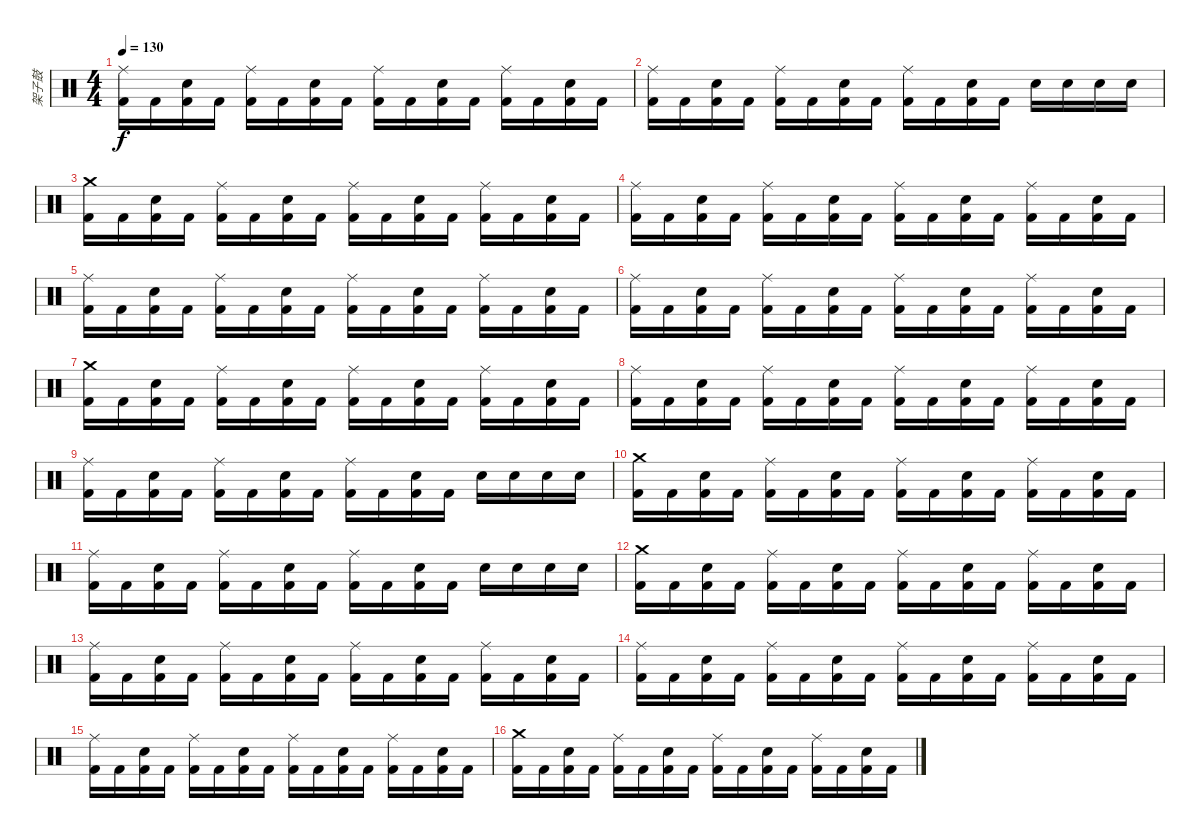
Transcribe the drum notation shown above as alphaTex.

\track ("架子鼓" "架子鼓") {instrument percussion}
\staff {score}
\articulation defaults
\ts (4 4)
\tempo 130
\clef neutral
\ks c
("Ride (middle)" "Kick (hit) 2").16{dy f} "Kick (hit) 2".16 ("Snare (hit) 2" "Kick (hit) 2").16 "Kick (hit) 2".16 ("Ride (middle)" "Kick (hit) 2").16 "Kick (hit) 2".16 ("Snare (hit) 2" "Kick (hit) 2").16 "Kick (hit) 2".16 ("Ride (middle)" "Kick (hit) 2").16 "Kick (hit) 2".16 ("Snare (hit) 2" "Kick (hit) 2").16 "Kick (hit) 2".16 ("Ride (middle)" "Kick (hit) 2").16 "Kick (hit) 2".16 ("Snare (hit) 2" "Kick (hit) 2").16 "Kick (hit) 2".16 |
("Ride (middle)" "Kick (hit) 2").16 "Kick (hit) 2".16 ("Snare (hit) 2" "Kick (hit) 2").16 "Kick (hit) 2".16 ("Ride (middle)" "Kick (hit) 2").16 "Kick (hit) 2".16 ("Snare (hit) 2" "Kick (hit) 2").16 "Kick (hit) 2".16 ("Ride (middle)" "Kick (hit) 2").16 "Kick (hit) 2".16 ("Snare (hit) 2" "Kick (hit) 2").16 "Kick (hit) 2".16 "Snare (hit) 2".16 "Snare (hit) 2".16 "Snare (hit) 2".16 "Snare (hit) 2".16 |
("Crash medium (hit)" "Kick (hit) 2").16 "Kick (hit) 2".16 ("Snare (hit) 2" "Kick (hit) 2").16 "Kick (hit) 2".16 ("Ride (middle)" "Kick (hit) 2").16 "Kick (hit) 2".16 ("Snare (hit) 2" "Kick (hit) 2").16 "Kick (hit) 2".16 ("Ride (middle)" "Kick (hit) 2").16 "Kick (hit) 2".16 ("Snare (hit) 2" "Kick (hit) 2").16 "Kick (hit) 2".16 ("Ride (middle)" "Kick (hit) 2").16 "Kick (hit) 2".16 ("Snare (hit) 2" "Kick (hit) 2").16 "Kick (hit) 2".16 |
("Ride (middle)" "Kick (hit) 2").16 "Kick (hit) 2".16 ("Snare (hit) 2" "Kick (hit) 2").16 "Kick (hit) 2".16 ("Ride (middle)" "Kick (hit) 2").16 "Kick (hit) 2".16 ("Snare (hit) 2" "Kick (hit) 2").16 "Kick (hit) 2".16 ("Ride (middle)" "Kick (hit) 2").16 "Kick (hit) 2".16 ("Snare (hit) 2" "Kick (hit) 2").16 "Kick (hit) 2".16 ("Ride (middle)" "Kick (hit) 2").16 "Kick (hit) 2".16 ("Snare (hit) 2" "Kick (hit) 2").16 "Kick (hit) 2".16 |
("Ride (middle)" "Kick (hit) 2").16 "Kick (hit) 2".16 ("Snare (hit) 2" "Kick (hit) 2").16 "Kick (hit) 2".16 ("Ride (middle)" "Kick (hit) 2").16 "Kick (hit) 2".16 ("Snare (hit) 2" "Kick (hit) 2").16 "Kick (hit) 2".16 ("Ride (middle)" "Kick (hit) 2").16 "Kick (hit) 2".16 ("Snare (hit) 2" "Kick (hit) 2").16 "Kick (hit) 2".16 ("Ride (middle)" "Kick (hit) 2").16 "Kick (hit) 2".16 ("Snare (hit) 2" "Kick (hit) 2").16 "Kick (hit) 2".16 |
("Ride (middle)" "Kick (hit) 2").16 "Kick (hit) 2".16 ("Snare (hit) 2" "Kick (hit) 2").16 "Kick (hit) 2".16 ("Ride (middle)" "Kick (hit) 2").16 "Kick (hit) 2".16 ("Snare (hit) 2" "Kick (hit) 2").16 "Kick (hit) 2".16 ("Ride (middle)" "Kick (hit) 2").16 "Kick (hit) 2".16 ("Snare (hit) 2" "Kick (hit) 2").16 "Kick (hit) 2".16 ("Ride (middle)" "Kick (hit) 2").16 "Kick (hit) 2".16 ("Snare (hit) 2" "Kick (hit) 2").16 "Kick (hit) 2".16 |
("Crash medium (hit)" "Kick (hit) 2").16 "Kick (hit) 2".16 ("Snare (hit) 2" "Kick (hit) 2").16 "Kick (hit) 2".16 ("Ride (middle)" "Kick (hit) 2").16 "Kick (hit) 2".16 ("Snare (hit) 2" "Kick (hit) 2").16 "Kick (hit) 2".16 ("Ride (middle)" "Kick (hit) 2").16 "Kick (hit) 2".16 ("Snare (hit) 2" "Kick (hit) 2").16 "Kick (hit) 2".16 ("Ride (middle)" "Kick (hit) 2").16 "Kick (hit) 2".16 ("Snare (hit) 2" "Kick (hit) 2").16 "Kick (hit) 2".16 |
("Ride (middle)" "Kick (hit) 2").16 "Kick (hit) 2".16 ("Snare (hit) 2" "Kick (hit) 2").16 "Kick (hit) 2".16 ("Ride (middle)" "Kick (hit) 2").16 "Kick (hit) 2".16 ("Snare (hit) 2" "Kick (hit) 2").16 "Kick (hit) 2".16 ("Ride (middle)" "Kick (hit) 2").16 "Kick (hit) 2".16 ("Snare (hit) 2" "Kick (hit) 2").16 "Kick (hit) 2".16 ("Ride (middle)" "Kick (hit) 2").16 "Kick (hit) 2".16 ("Snare (hit) 2" "Kick (hit) 2").16 "Kick (hit) 2".16 |
("Ride (middle)" "Kick (hit) 2").16 "Kick (hit) 2".16 ("Snare (hit) 2" "Kick (hit) 2").16 "Kick (hit) 2".16 ("Ride (middle)" "Kick (hit) 2").16 "Kick (hit) 2".16 ("Snare (hit) 2" "Kick (hit) 2").16 "Kick (hit) 2".16 ("Ride (middle)" "Kick (hit) 2").16 "Kick (hit) 2".16 ("Snare (hit) 2" "Kick (hit) 2").16 "Kick (hit) 2".16 "Snare (hit) 2".16 "Snare (hit) 2".16 "Snare (hit) 2".16 "Snare (hit) 2".16 |
("Crash medium (hit)" "Kick (hit) 2").16 "Kick (hit) 2".16 ("Snare (hit) 2" "Kick (hit) 2").16 "Kick (hit) 2".16 ("Ride (middle)" "Kick (hit) 2").16 "Kick (hit) 2".16 ("Snare (hit) 2" "Kick (hit) 2").16 "Kick (hit) 2".16 ("Ride (middle)" "Kick (hit) 2").16 "Kick (hit) 2".16 ("Snare (hit) 2" "Kick (hit) 2").16 "Kick (hit) 2".16 ("Ride (middle)" "Kick (hit) 2").16 "Kick (hit) 2".16 ("Snare (hit) 2" "Kick (hit) 2").16 "Kick (hit) 2".16 |
("Ride (middle)" "Kick (hit) 2").16 "Kick (hit) 2".16 ("Snare (hit) 2" "Kick (hit) 2").16 "Kick (hit) 2".16 ("Ride (middle)" "Kick (hit) 2").16 "Kick (hit) 2".16 ("Snare (hit) 2" "Kick (hit) 2").16 "Kick (hit) 2".16 ("Ride (middle)" "Kick (hit) 2").16 "Kick (hit) 2".16 ("Snare (hit) 2" "Kick (hit) 2").16 "Kick (hit) 2".16 "Snare (hit) 2".16 "Snare (hit) 2".16 "Snare (hit) 2".16 "Snare (hit) 2".16 |
("Crash medium (hit)" "Kick (hit) 2").16 "Kick (hit) 2".16 ("Snare (hit) 2" "Kick (hit) 2").16 "Kick (hit) 2".16 ("Ride (middle)" "Kick (hit) 2").16 "Kick (hit) 2".16 ("Snare (hit) 2" "Kick (hit) 2").16 "Kick (hit) 2".16 ("Ride (middle)" "Kick (hit) 2").16 "Kick (hit) 2".16 ("Snare (hit) 2" "Kick (hit) 2").16 "Kick (hit) 2".16 ("Ride (middle)" "Kick (hit) 2").16 "Kick (hit) 2".16 ("Snare (hit) 2" "Kick (hit) 2").16 "Kick (hit) 2".16 |
("Ride (middle)" "Kick (hit) 2").16 "Kick (hit) 2".16 ("Snare (hit) 2" "Kick (hit) 2").16 "Kick (hit) 2".16 ("Ride (middle)" "Kick (hit) 2").16 "Kick (hit) 2".16 ("Snare (hit) 2" "Kick (hit) 2").16 "Kick (hit) 2".16 ("Ride (middle)" "Kick (hit) 2").16 "Kick (hit) 2".16 ("Snare (hit) 2" "Kick (hit) 2").16 "Kick (hit) 2".16 ("Ride (middle)" "Kick (hit) 2").16 "Kick (hit) 2".16 ("Snare (hit) 2" "Kick (hit) 2").16 "Kick (hit) 2".16 |
("Ride (middle)" "Kick (hit) 2").16 "Kick (hit) 2".16 ("Snare (hit) 2" "Kick (hit) 2").16 "Kick (hit) 2".16 ("Ride (middle)" "Kick (hit) 2").16 "Kick (hit) 2".16 ("Snare (hit) 2" "Kick (hit) 2").16 "Kick (hit) 2".16 ("Ride (middle)" "Kick (hit) 2").16 "Kick (hit) 2".16 ("Snare (hit) 2" "Kick (hit) 2").16 "Kick (hit) 2".16 ("Ride (middle)" "Kick (hit) 2").16 "Kick (hit) 2".16 ("Snare (hit) 2" "Kick (hit) 2").16 "Kick (hit) 2".16 |
("Ride (middle)" "Kick (hit) 2").16 "Kick (hit) 2".16 ("Snare (hit) 2" "Kick (hit) 2").16 "Kick (hit) 2".16 ("Ride (middle)" "Kick (hit) 2").16 "Kick (hit) 2".16 ("Snare (hit) 2" "Kick (hit) 2").16 "Kick (hit) 2".16 ("Ride (middle)" "Kick (hit) 2").16 "Kick (hit) 2".16 ("Snare (hit) 2" "Kick (hit) 2").16 "Kick (hit) 2".16 ("Ride (middle)" "Kick (hit) 2").16 "Kick (hit) 2".16 ("Snare (hit) 2" "Kick (hit) 2").16 "Kick (hit) 2".16 |
("Crash medium (hit)" "Kick (hit) 2").16 "Kick (hit) 2".16 ("Snare (hit) 2" "Kick (hit) 2").16 "Kick (hit) 2".16 ("Ride (middle)" "Kick (hit) 2").16 "Kick (hit) 2".16 ("Snare (hit) 2" "Kick (hit) 2").16 "Kick (hit) 2".16 ("Ride (middle)" "Kick (hit) 2").16 "Kick (hit) 2".16 ("Snare (hit) 2" "Kick (hit) 2").16 "Kick (hit) 2".16 ("Ride (middle)" "Kick (hit) 2").16 "Kick (hit) 2".16 ("Snare (hit) 2" "Kick (hit) 2").16 "Kick (hit) 2".16
